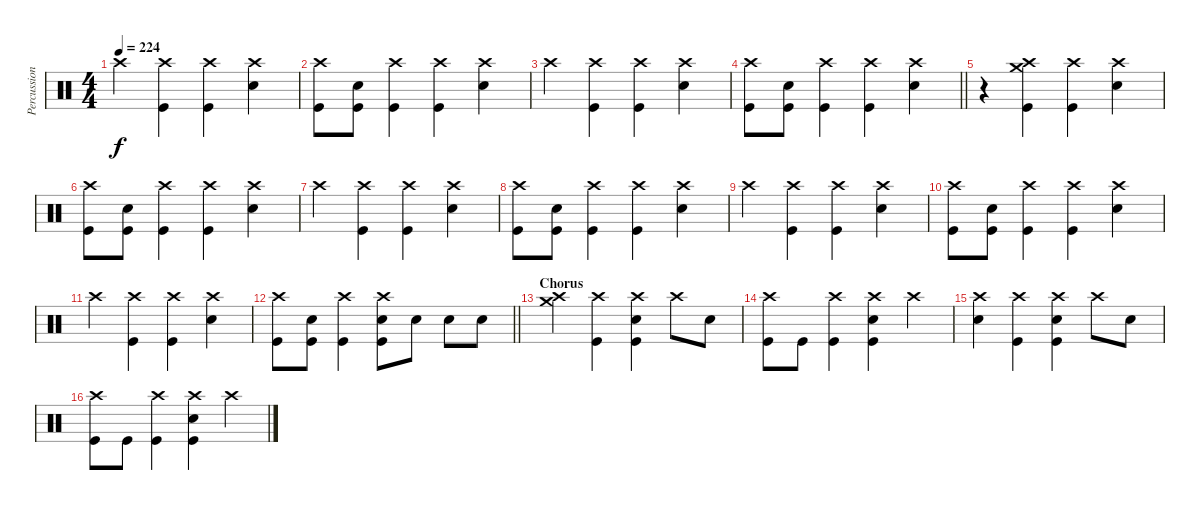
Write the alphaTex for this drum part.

\track ("Percussion" "Percussion") {instrument percussion}
\staff {score}
\articulation defaults
\ts (4 4)
\tempo 224
\clef neutral
\ks c "Crash high (hit)".4{dy f}
("Crash high (hit)" "Kick (hit)").4 ("Crash high (hit)" "Kick (hit)").4 ("Crash high (hit)" "Electric Snare (hit)").4 |
("Crash high (hit)" "Kick (hit)").8 ("Electric Snare (hit)" "Kick (hit)").8 ("Crash high (hit)" "Kick (hit)").4 ("Crash high (hit)" "Kick (hit)").4 ("Crash high (hit)" "Electric Snare (hit)").4 |
"Crash high (hit)".4 ("Crash high (hit)" "Kick (hit)").4 ("Crash high (hit)" "Kick (hit)").4 ("Crash high (hit)" "Electric Snare (hit)").4 |
\barLineRight lightlight
("Crash high (hit)" "Kick (hit)").8 ("Electric Snare (hit)" "Kick (hit)").8 ("Crash high (hit)" "Kick (hit)").4 ("Crash high (hit)" "Kick (hit)").4 ("Crash high (hit)" "Electric Snare (hit)").4 |
r.4 ("Crash high (hit)" "Crash medium (hit)" "Kick (hit)").4 ("Crash high (hit)" "Kick (hit)").4 ("Crash high (hit)" "Electric Snare (hit)").4 |
("Crash high (hit)" "Kick (hit)").8 ("Electric Snare (hit)" "Kick (hit)").8 ("Crash high (hit)" "Kick (hit)").4 ("Crash high (hit)" "Kick (hit)").4 ("Crash high (hit)" "Electric Snare (hit)").4 |
"Crash high (hit)".4 ("Crash high (hit)" "Kick (hit)").4 ("Crash high (hit)" "Kick (hit)").4 ("Crash high (hit)" "Electric Snare (hit)").4 |
("Crash high (hit)" "Kick (hit)").8 ("Electric Snare (hit)" "Kick (hit)").8 ("Crash high (hit)" "Kick (hit)").4 ("Crash high (hit)" "Kick (hit)").4 ("Crash high (hit)" "Electric Snare (hit)").4 |
"Crash high (hit)".4 ("Crash high (hit)" "Kick (hit)").4 ("Crash high (hit)" "Kick (hit)").4 ("Crash high (hit)" "Electric Snare (hit)").4 |
("Crash high (hit)" "Kick (hit)").8 ("Electric Snare (hit)" "Kick (hit)").8 ("Crash high (hit)" "Kick (hit)").4 ("Crash high (hit)" "Kick (hit)").4 ("Crash high (hit)" "Electric Snare (hit)").4 |
"Crash high (hit)".4 ("Crash high (hit)" "Kick (hit)").4 ("Crash high (hit)" "Kick (hit)").4 ("Crash high (hit)" "Electric Snare (hit)").4 |
\barLineRight lightlight
("Crash high (hit)" "Kick (hit)").8 ("Electric Snare (hit)" "Kick (hit)").8 ("Crash high (hit)" "Kick (hit)").4 ("Crash high (hit)" "Electric Snare (hit)" "Kick (hit)").8 "Electric Snare (hit)".8 "Electric Snare (hit)".8 "Electric Snare (hit)".8 |
\section ("" "Chorus")
("Crash high (hit)" "Crash medium (hit)").4 ("Crash high (hit)" "Kick (hit)").4 ("Crash high (hit)" "Electric Snare (hit)" "Kick (hit)").4 "Crash high (hit)".8 "Electric Snare (hit)".8 |
("Crash high (hit)" "Kick (hit)").8 "Kick (hit)".8 ("Crash high (hit)" "Kick (hit)").4 ("Crash high (hit)" "Electric Snare (hit)" "Kick (hit)").4 "Crash high (hit)".4 |
("Crash high (hit)" "Electric Snare (hit)").4 ("Crash high (hit)" "Kick (hit)").4 ("Crash high (hit)" "Electric Snare (hit)" "Kick (hit)").4 "Crash high (hit)".8 "Electric Snare (hit)".8 |
("Crash high (hit)" "Kick (hit)").8 "Kick (hit)".8 ("Crash high (hit)" "Kick (hit)").4 ("Crash high (hit)" "Electric Snare (hit)" "Kick (hit)").4 "Crash high (hit)".4
